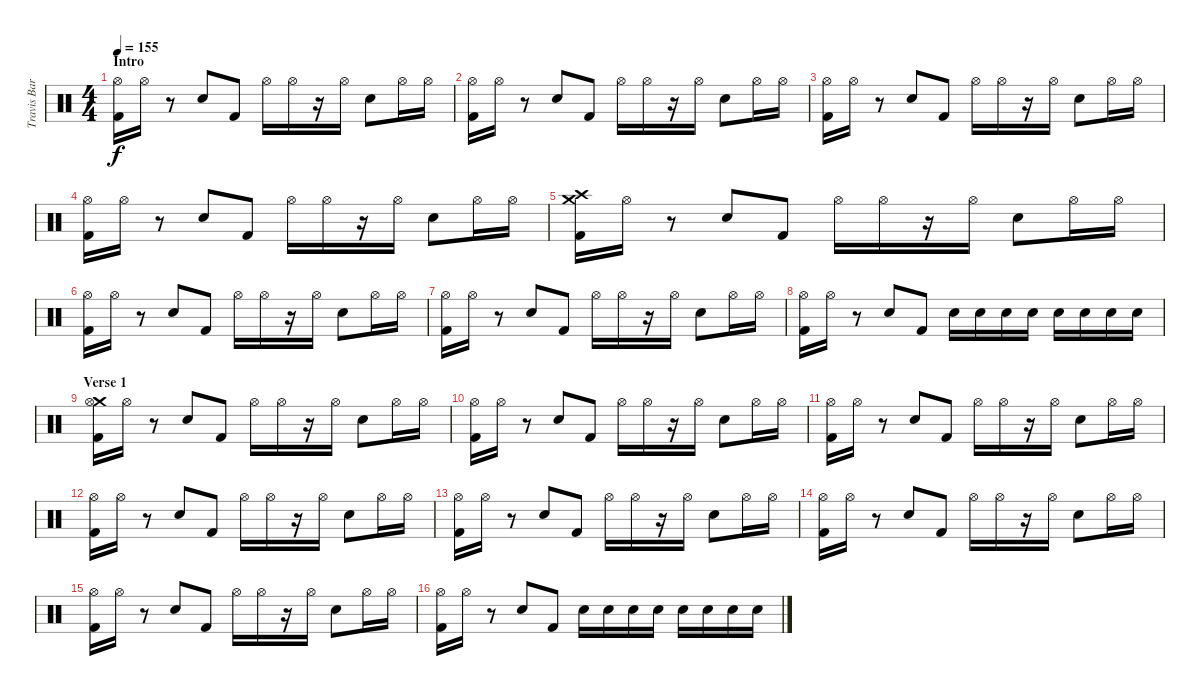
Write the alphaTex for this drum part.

\track ("Travis Barker Drums" "Travis Bar") {instrument percussion}
\staff {score}
\articulation defaults
\ts (4 4)
\section ("" "Intro")
\tempo 155
\clef neutral
\ks c
("Hi-Hat (open)" "Kick (hit) 2").16{dy f} "Hi-Hat (open)".16 r.8 "Electric Snare (hit)".8 "Kick (hit) 2".8 "Hi-Hat (open)".16 "Hi-Hat (open)".16 r.16 "Hi-Hat (open)".16 "Electric Snare (hit)".8 "Hi-Hat (open)".16 "Hi-Hat (open)".16 |
("Hi-Hat (open)" "Kick (hit) 2").16 "Hi-Hat (open)".16 r.8 "Electric Snare (hit)".8 "Kick (hit) 2".8 "Hi-Hat (open)".16 "Hi-Hat (open)".16 r.16 "Hi-Hat (open)".16 "Electric Snare (hit)".8 "Hi-Hat (open)".16 "Hi-Hat (open)".16 |
("Hi-Hat (open)" "Kick (hit) 2").16 "Hi-Hat (open)".16 r.8 "Electric Snare (hit)".8 "Kick (hit) 2".8 "Hi-Hat (open)".16 "Hi-Hat (open)".16 r.16 "Hi-Hat (open)".16 "Electric Snare (hit)".8 "Hi-Hat (open)".16 "Hi-Hat (open)".16 |
("Hi-Hat (open)" "Kick (hit) 2").16 "Hi-Hat (open)".16 r.8 "Electric Snare (hit)".8 "Kick (hit) 2".8 "Hi-Hat (open)".16 "Hi-Hat (open)".16 r.16 "Hi-Hat (open)".16 "Electric Snare (hit)".8 "Hi-Hat (open)".16 "Hi-Hat (open)".16 |
("Crash medium (hit)" "Crash high (hit)" "Kick (hit) 2").16 "Hi-Hat (open)".16 r.8 "Electric Snare (hit)".8 "Kick (hit) 2".8 "Hi-Hat (open)".16 "Hi-Hat (open)".16 r.16 "Hi-Hat (open)".16 "Electric Snare (hit)".8 "Hi-Hat (open)".16 "Hi-Hat (open)".16 |
("Hi-Hat (open)" "Kick (hit) 2").16 "Hi-Hat (open)".16 r.8 "Electric Snare (hit)".8 "Kick (hit) 2".8 "Hi-Hat (open)".16 "Hi-Hat (open)".16 r.16 "Hi-Hat (open)".16 "Electric Snare (hit)".8 "Hi-Hat (open)".16 "Hi-Hat (open)".16 |
("Hi-Hat (open)" "Kick (hit) 2").16 "Hi-Hat (open)".16 r.8 "Electric Snare (hit)".8 "Kick (hit) 2".8 "Hi-Hat (open)".16 "Hi-Hat (open)".16 r.16 "Hi-Hat (open)".16 "Electric Snare (hit)".8 "Hi-Hat (open)".16 "Hi-Hat (open)".16 |
("Hi-Hat (open)" "Kick (hit) 2").16 "Hi-Hat (open)".16 r.8 "Electric Snare (hit)".8 "Kick (hit) 2".8 "Electric Snare (hit)".16 "Electric Snare (hit)".16 "Electric Snare (hit)".16 "Electric Snare (hit)".16 "Electric Snare (hit)".16 "Electric Snare (hit)".16 "Electric Snare (hit)".16 "Electric Snare (hit)".16 |
\section ("" "Verse 1")
("Crash medium (hit)" "Hi-Hat (open)" "Kick (hit) 2").16 "Hi-Hat (open)".16 r.8 "Electric Snare (hit)".8 "Kick (hit) 2".8 "Hi-Hat (open)".16 "Hi-Hat (open)".16 r.16 "Hi-Hat (open)".16 "Electric Snare (hit)".8 "Hi-Hat (open)".16 "Hi-Hat (open)".16 |
("Hi-Hat (open)" "Kick (hit) 2").16 "Hi-Hat (open)".16 r.8 "Electric Snare (hit)".8 "Kick (hit) 2".8 "Hi-Hat (open)".16 "Hi-Hat (open)".16 r.16 "Hi-Hat (open)".16 "Electric Snare (hit)".8 "Hi-Hat (open)".16 "Hi-Hat (open)".16 |
("Hi-Hat (open)" "Kick (hit) 2").16 "Hi-Hat (open)".16 r.8 "Electric Snare (hit)".8 "Kick (hit) 2".8 "Hi-Hat (open)".16 "Hi-Hat (open)".16 r.16 "Hi-Hat (open)".16 "Electric Snare (hit)".8 "Hi-Hat (open)".16 "Hi-Hat (open)".16 |
("Hi-Hat (open)" "Kick (hit) 2").16 "Hi-Hat (open)".16 r.8 "Electric Snare (hit)".8 "Kick (hit) 2".8 "Hi-Hat (open)".16 "Hi-Hat (open)".16 r.16 "Hi-Hat (open)".16 "Electric Snare (hit)".8 "Hi-Hat (open)".16 "Hi-Hat (open)".16 |
("Hi-Hat (open)" "Kick (hit) 2").16 "Hi-Hat (open)".16 r.8 "Electric Snare (hit)".8 "Kick (hit) 2".8 "Hi-Hat (open)".16 "Hi-Hat (open)".16 r.16 "Hi-Hat (open)".16 "Electric Snare (hit)".8 "Hi-Hat (open)".16 "Hi-Hat (open)".16 |
("Hi-Hat (open)" "Kick (hit) 2").16 "Hi-Hat (open)".16 r.8 "Electric Snare (hit)".8 "Kick (hit) 2".8 "Hi-Hat (open)".16 "Hi-Hat (open)".16 r.16 "Hi-Hat (open)".16 "Electric Snare (hit)".8 "Hi-Hat (open)".16 "Hi-Hat (open)".16 |
("Hi-Hat (open)" "Kick (hit) 2").16 "Hi-Hat (open)".16 r.8 "Electric Snare (hit)".8 "Kick (hit) 2".8 "Hi-Hat (open)".16 "Hi-Hat (open)".16 r.16 "Hi-Hat (open)".16 "Electric Snare (hit)".8 "Hi-Hat (open)".16 "Hi-Hat (open)".16 |
("Hi-Hat (open)" "Kick (hit) 2").16 "Hi-Hat (open)".16 r.8 "Electric Snare (hit)".8 "Kick (hit) 2".8 "Electric Snare (hit)".16 "Electric Snare (hit)".16 "Electric Snare (hit)".16 "Electric Snare (hit)".16 "Electric Snare (hit)".16 "Electric Snare (hit)".16 "Electric Snare (hit)".16 "Electric Snare (hit)".16
